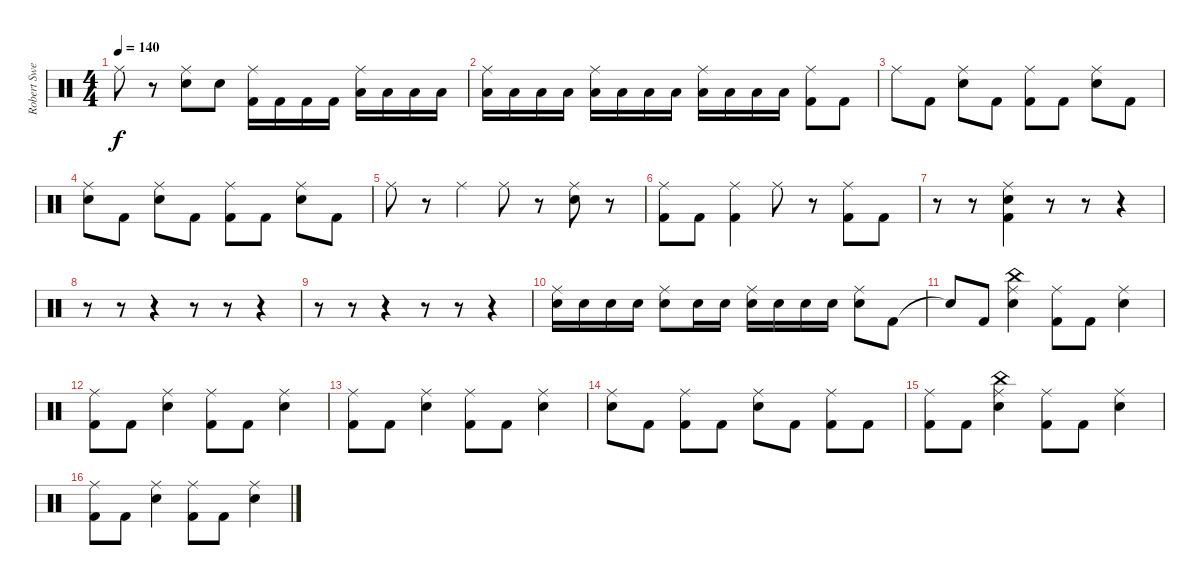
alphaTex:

\track ("Robert Sweet" "Robert Swe") {instrument percussion}
\staff {score}
\articulation defaults
\ts (4 4)
\tempo 140
\clef neutral
\ks c "Ride (middle)".8{dy f}
r.8 ("Electric Snare (hit)" "Ride (middle)").8 "Electric Snare (hit)".8 ("Kick (hit) 2" "Ride (middle)").16 "Kick (hit) 2".16 "Kick (hit) 2".16 "Kick (hit) 2".16 ("Low Floor Tom (hit)" "Ride (middle)").16 "Low Floor Tom (hit)".16 "Low Floor Tom (hit)".16 "Low Floor Tom (hit)".16 |
("Low Floor Tom (hit)" "Ride (middle)").16 "Low Floor Tom (hit)".16 "Low Floor Tom (hit)".16 "Low Floor Tom (hit)".16 ("Low Floor Tom (hit)" "Ride (middle)").16 "Low Floor Tom (hit)".16 "Low Floor Tom (hit)".16 "Low Floor Tom (hit)".16 ("Low Floor Tom (hit)" "Ride (middle)").16 "Low Floor Tom (hit)".16 "Low Floor Tom (hit)".16 "Low Floor Tom (hit)".16 ("Kick (hit) 2" "Ride (middle)").8 "Kick (hit) 2".8 |
"Ride (middle)".8 "Kick (hit) 2".8 ("Electric Snare (hit)" "Ride (middle)").8 "Kick (hit) 2".8 ("Kick (hit) 2" "Ride (middle)").8 "Kick (hit) 2".8 ("Electric Snare (hit)" "Ride (middle)").8 "Kick (hit) 2".8 |
("Electric Snare (hit)" "Ride (middle)").8 "Kick (hit) 2".8 ("Electric Snare (hit)" "Ride (middle)").8 "Kick (hit) 2".8 ("Kick (hit) 2" "Ride (middle)").8 "Kick (hit) 2".8 ("Electric Snare (hit)" "Ride (middle)").8 "Kick (hit) 2".8 |
"Ride (middle)".8 r.8 "Ride (middle)".4 "Ride (middle)".8 r.8 ("Electric Snare (hit)" "Ride (middle)").8 r.8 |
("Kick (hit) 2" "Ride (middle)").8 "Kick (hit) 2".8 ("Kick (hit) 2" "Ride (middle)").4 "Ride (middle)".8 r.8 ("Kick (hit) 2" "Ride (middle)").8 "Kick (hit) 2".8 |
r.8 r.8 ("Electric Snare (hit)" "Kick (hit) 2" "Ride (middle)").4 r.8 r.8 r.4 |
r.8 r.8 r.4 r.8 r.8 r.4 |
r.8 r.8 r.4 r.8 r.8 r.4 |
("Electric Snare (hit)" "Ride (middle)").16 "Electric Snare (hit)".16 "Electric Snare (hit)".16 "Electric Snare (hit)".16 ("Electric Snare (hit)" "Ride (middle)").8 "Electric Snare (hit)".16 "Electric Snare (hit)".16 ("Electric Snare (hit)" "Ride (middle)").16 "Electric Snare (hit)".16 "Electric Snare (hit)".16 "Electric Snare (hit)".16 ("Electric Snare (hit)" "Ride (middle)").8 "Kick (hit) 2".8 |
"Snare (hit)"{t}.8 "Kick (hit) 2".8 ("Electric Snare (hit)" "China (hit)" "Ride (middle)").4 ("Kick (hit) 2" "Ride (middle)").8 "Kick (hit) 2".8 ("Electric Snare (hit)" "Ride (middle)").4 |
("Kick (hit) 2" "Ride (middle)").8 "Kick (hit) 2".8 ("Electric Snare (hit)" "Ride (middle)").4 ("Kick (hit) 2" "Ride (middle)").8 "Kick (hit) 2".8 ("Electric Snare (hit)" "Ride (middle)").4 |
("Kick (hit) 2" "Ride (middle)").8 "Kick (hit) 2".8 ("Electric Snare (hit)" "Ride (middle)").4 ("Kick (hit) 2" "Ride (middle)").8 "Kick (hit) 2".8 ("Electric Snare (hit)" "Ride (middle)").4 |
("Electric Snare (hit)" "Ride (middle)").8 "Kick (hit) 2".8 ("Kick (hit) 2" "Ride (middle)").8 "Kick (hit) 2".8 ("Electric Snare (hit)" "Ride (middle)").8 "Kick (hit) 2".8 ("Kick (hit) 2" "Ride (middle)").8 "Kick (hit) 2".8 |
("Kick (hit) 2" "Ride (middle)").8 "Kick (hit) 2".8 ("Electric Snare (hit)" "China (hit)" "Ride (middle)").4 ("Kick (hit) 2" "Ride (middle)").8 "Kick (hit) 2".8 ("Electric Snare (hit)" "Ride (middle)").4 |
("Kick (hit) 2" "Ride (middle)").8 "Kick (hit) 2".8 ("Electric Snare (hit)" "Ride (middle)").4 ("Kick (hit) 2" "Ride (middle)").8 "Kick (hit) 2".8 ("Electric Snare (hit)" "Ride (middle)").4
